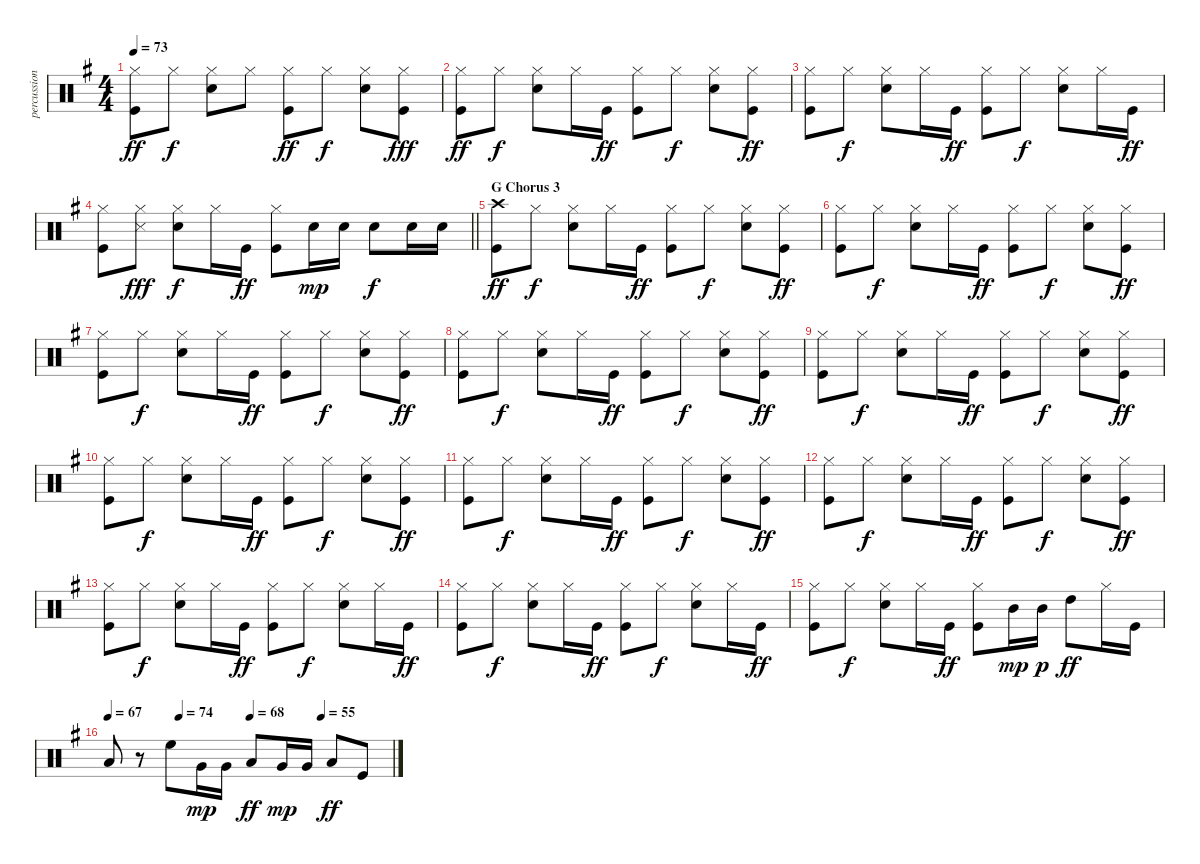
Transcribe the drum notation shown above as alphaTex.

\track ("percussion" "percussion") {instrument percussion}
\staff {score}
\articulation defaults
\ts (4 4)
\tempo 73
\clef neutral
\ks g
("Hi-Hat (closed)" "Kick (hit)").8{dy ff} "Hi-Hat (closed)".8{dy f} ("Electric Snare (hit)" "Hi-Hat (closed)").8 "Hi-Hat (closed)".8 ("Hi-Hat (closed)" "Kick (hit)").8{dy ff} "Hi-Hat (closed)".8{dy f} ("Electric Snare (hit)" "Hi-Hat (closed)").8 ("Hi-Hat (closed)" "Kick (hit)").8{dy fff} |
("Hi-Hat (closed)" "Kick (hit)").8{dy ff} "Hi-Hat (closed)".8{dy f} ("Electric Snare (hit)" "Hi-Hat (closed)").8 "Hi-Hat (closed)".16 "Kick (hit)".16{dy ff} ("Hi-Hat (closed)" "Kick (hit)").8 "Hi-Hat (closed)".8{dy f} ("Electric Snare (hit)" "Hi-Hat (closed)").8 ("Hi-Hat (closed)" "Kick (hit)").8{dy ff} |
("Hi-Hat (closed)" "Kick (hit)").8 "Hi-Hat (closed)".8{dy f} ("Electric Snare (hit)" "Hi-Hat (closed)").8 "Hi-Hat (closed)".16 "Kick (hit)".16{dy ff} ("Hi-Hat (closed)" "Kick (hit)").8 "Hi-Hat (closed)".8{dy f} ("Electric Snare (hit)" "Hi-Hat (closed)").8 "Hi-Hat (closed)".16 "Kick (hit)".16{dy ff} |
\barLineRight lightlight
("Hi-Hat (closed)" "Kick (hit)").8 ("Snare (side stick) 3" "Hi-Hat (closed)").8{dy fff} ("Electric Snare (hit)" "Hi-Hat (closed)").8{dy f} "Hi-Hat (closed)".16 "Kick (hit)".16{dy ff} ("Hi-Hat (closed)" "Kick (hit)").8 "Electric Snare (hit)".16{dy mp} "Electric Snare (hit)".16 "Electric Snare (hit)".8{dy f} "Electric Snare (hit)".16 "Electric Snare (hit)".16 |
\section ("" "G Chorus 3")
("Crash high (hit)" "Kick (hit)").8{dy ff} "Hi-Hat (closed)".8{dy f} ("Electric Snare (hit)" "Hi-Hat (closed)").8 "Hi-Hat (closed)".16 "Kick (hit)".16{dy ff} ("Hi-Hat (closed)" "Kick (hit)").8 "Hi-Hat (closed)".8{dy f} ("Electric Snare (hit)" "Hi-Hat (closed)").8 ("Hi-Hat (closed)" "Kick (hit)").8{dy ff} |
("Hi-Hat (closed)" "Kick (hit)").8 "Hi-Hat (closed)".8{dy f} ("Electric Snare (hit)" "Hi-Hat (closed)").8 "Hi-Hat (closed)".16 "Kick (hit)".16{dy ff} ("Hi-Hat (closed)" "Kick (hit)").8 "Hi-Hat (closed)".8{dy f} ("Electric Snare (hit)" "Hi-Hat (closed)").8 ("Hi-Hat (closed)" "Kick (hit)").8{dy ff} |
("Hi-Hat (closed)" "Kick (hit)").8 "Hi-Hat (closed)".8{dy f} ("Electric Snare (hit)" "Hi-Hat (closed)").8 "Hi-Hat (closed)".16 "Kick (hit)".16{dy ff} ("Hi-Hat (closed)" "Kick (hit)").8 "Hi-Hat (closed)".8{dy f} ("Electric Snare (hit)" "Hi-Hat (closed)").8 ("Hi-Hat (closed)" "Kick (hit)").8{dy ff} |
("Hi-Hat (closed)" "Kick (hit)").8 "Hi-Hat (closed)".8{dy f} ("Electric Snare (hit)" "Hi-Hat (closed)").8 "Hi-Hat (closed)".16 "Kick (hit)".16{dy ff} ("Hi-Hat (closed)" "Kick (hit)").8 "Hi-Hat (closed)".8{dy f} ("Electric Snare (hit)" "Hi-Hat (closed)").8 ("Hi-Hat (closed)" "Kick (hit)").8{dy ff} |
("Hi-Hat (closed)" "Kick (hit)").8 "Hi-Hat (closed)".8{dy f} ("Electric Snare (hit)" "Hi-Hat (closed)").8 "Hi-Hat (closed)".16 "Kick (hit)".16{dy ff} ("Hi-Hat (closed)" "Kick (hit)").8 "Hi-Hat (closed)".8{dy f} ("Electric Snare (hit)" "Hi-Hat (closed)").8 ("Hi-Hat (closed)" "Kick (hit)").8{dy ff} |
("Hi-Hat (closed)" "Kick (hit)").8 "Hi-Hat (closed)".8{dy f} ("Electric Snare (hit)" "Hi-Hat (closed)").8 "Hi-Hat (closed)".16 "Kick (hit)".16{dy ff} ("Hi-Hat (closed)" "Kick (hit)").8 "Hi-Hat (closed)".8{dy f} ("Electric Snare (hit)" "Hi-Hat (closed)").8 ("Hi-Hat (closed)" "Kick (hit)").8{dy ff} |
("Hi-Hat (closed)" "Kick (hit)").8 "Hi-Hat (closed)".8{dy f} ("Electric Snare (hit)" "Hi-Hat (closed)").8 "Hi-Hat (closed)".16 "Kick (hit)".16{dy ff} ("Hi-Hat (closed)" "Kick (hit)").8 "Hi-Hat (closed)".8{dy f} ("Electric Snare (hit)" "Hi-Hat (closed)").8 ("Hi-Hat (closed)" "Kick (hit)").8{dy ff} |
("Hi-Hat (closed)" "Kick (hit)").8 "Hi-Hat (closed)".8{dy f} ("Electric Snare (hit)" "Hi-Hat (closed)").8 "Hi-Hat (closed)".16 "Kick (hit)".16{dy ff} ("Hi-Hat (closed)" "Kick (hit)").8 "Hi-Hat (closed)".8{dy f} ("Electric Snare (hit)" "Hi-Hat (closed)").8 ("Hi-Hat (closed)" "Kick (hit)").8{dy ff} |
("Hi-Hat (closed)" "Kick (hit)").8 "Hi-Hat (closed)".8{dy f} ("Electric Snare (hit)" "Hi-Hat (closed)").8 "Hi-Hat (closed)".16 "Kick (hit)".16{dy ff} ("Hi-Hat (closed)" "Kick (hit)").8 "Hi-Hat (closed)".8{dy f} ("Electric Snare (hit)" "Hi-Hat (closed)").8 "Hi-Hat (closed)".16 "Kick (hit)".16{dy ff} |
("Hi-Hat (closed)" "Kick (hit)").8 "Hi-Hat (closed)".8{dy f} ("Electric Snare (hit)" "Hi-Hat (closed)").8 "Hi-Hat (closed)".16 "Kick (hit)".16{dy ff} ("Hi-Hat (closed)" "Kick (hit)").8 "Hi-Hat (closed)".8{dy f} ("Electric Snare (hit)" "Hi-Hat (closed)").8 "Hi-Hat (closed)".16 "Kick (hit)".16{dy ff} |
("Hi-Hat (closed)" "Kick (hit)").8 "Hi-Hat (closed)".8{dy f} ("Electric Snare (hit)" "Hi-Hat (closed)").8 "Hi-Hat (closed)".16 "Kick (hit)".16{dy ff} ("Hi-Hat (closed)" "Kick (hit)").8 "Mid Tom (hit)".16{dy mp} "Mid Tom (hit)".16{dy p} "High Tom (hit)".8{dy ff} "Hi-Hat (closed)".16 "Kick (hit)".16 |
\tempo 67
\tempo (74 0.25)
\tempo (68 0.5)
\tempo (55 0.75)
"Low Tom (hit)".8 r.8 "High Floor Tom (hit)".8 "Very Low Tom (hit)".16{dy mp} "Very Low Tom (hit)".16 "Low Tom (hit)".8{dy ff} "Very Low Tom (hit)".16{dy mp} "Very Low Tom (hit)".16 "Low Tom (hit)".8{dy ff} "Kick (hit)".8
